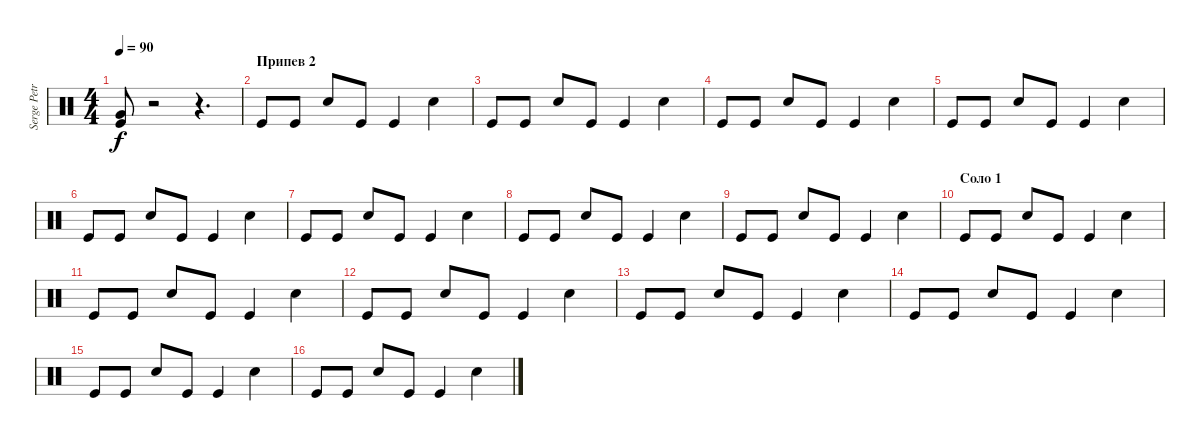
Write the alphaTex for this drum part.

\track ("Serge Petrone" "Serge Petr") {instrument percussion}
\staff {score}
\articulation defaults
\ts (4 4)
\tempo 90
\clef neutral
\ks c
("Kick (hit)" "Very Low Tom (hit)").8{dy f} r.2 r.4{d} |
\section ("" "Припев 2")
"Kick (hit)".8 "Kick (hit)".8 "Snare (hit) 2".8 "Kick (hit)".8 "Kick (hit)".4 "Snare (hit) 2".4 |
"Kick (hit)".8 "Kick (hit)".8 "Snare (hit) 2".8 "Kick (hit)".8 "Kick (hit)".4 "Snare (hit) 2".4 |
"Kick (hit)".8 "Kick (hit)".8 "Snare (hit) 2".8 "Kick (hit)".8 "Kick (hit)".4 "Snare (hit) 2".4 |
"Kick (hit)".8 "Kick (hit)".8 "Snare (hit) 2".8 "Kick (hit)".8 "Kick (hit)".4 "Snare (hit) 2".4 |
"Kick (hit)".8 "Kick (hit)".8 "Snare (hit) 2".8 "Kick (hit)".8 "Kick (hit)".4 "Snare (hit) 2".4 |
"Kick (hit)".8 "Kick (hit)".8 "Snare (hit) 2".8 "Kick (hit)".8 "Kick (hit)".4 "Snare (hit) 2".4 |
"Kick (hit)".8 "Kick (hit)".8 "Snare (hit) 2".8 "Kick (hit)".8 "Kick (hit)".4 "Snare (hit) 2".4 |
"Kick (hit)".8 "Kick (hit)".8 "Snare (hit) 2".8 "Kick (hit)".8 "Kick (hit)".4 "Snare (hit) 2".4 |
\section ("" "Соло 1")
"Kick (hit)".8 "Kick (hit)".8 "Snare (hit) 2".8 "Kick (hit)".8 "Kick (hit)".4 "Snare (hit) 2".4 |
"Kick (hit)".8 "Kick (hit)".8 "Snare (hit) 2".8 "Kick (hit)".8 "Kick (hit)".4 "Snare (hit) 2".4 |
"Kick (hit)".8 "Kick (hit)".8 "Snare (hit) 2".8 "Kick (hit)".8 "Kick (hit)".4 "Snare (hit) 2".4 |
"Kick (hit)".8 "Kick (hit)".8 "Snare (hit) 2".8 "Kick (hit)".8 "Kick (hit)".4 "Snare (hit) 2".4 |
"Kick (hit)".8 "Kick (hit)".8 "Snare (hit) 2".8 "Kick (hit)".8 "Kick (hit)".4 "Snare (hit) 2".4 |
"Kick (hit)".8 "Kick (hit)".8 "Snare (hit) 2".8 "Kick (hit)".8 "Kick (hit)".4 "Snare (hit) 2".4 |
"Kick (hit)".8 "Kick (hit)".8 "Snare (hit) 2".8 "Kick (hit)".8 "Kick (hit)".4 "Snare (hit) 2".4
